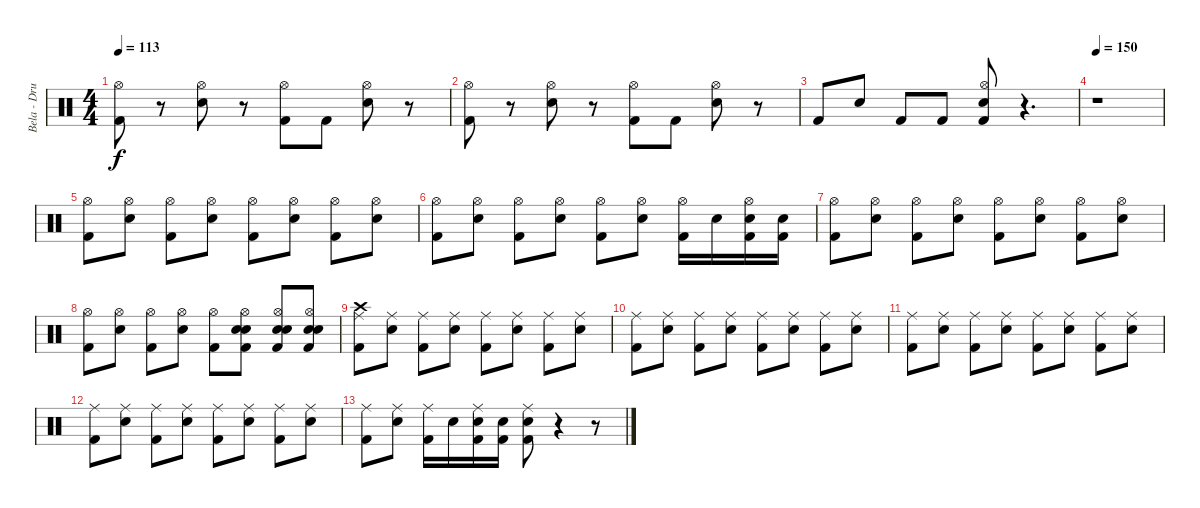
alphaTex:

\track ("Bela - Drums" "Bela - Dru") {instrument percussion}
\staff {score}
\articulation defaults
\ts (4 4)
\tempo 113
\clef neutral
\ks c
("Kick (hit) 2" "Hi-Hat (open)").8{dy f} r.8 ("Electric Snare (hit)" "Hi-Hat (open)").8 r.8 ("Kick (hit) 2" "Hi-Hat (open)").8 "Kick (hit) 2".8 ("Electric Snare (hit)" "Hi-Hat (open)").8 r.8 |
("Kick (hit) 2" "Hi-Hat (open)").8 r.8 ("Electric Snare (hit)" "Hi-Hat (open)").8 r.8 ("Kick (hit) 2" "Hi-Hat (open)").8 "Kick (hit) 2".8 ("Electric Snare (hit)" "Hi-Hat (open)").8 r.8 |
"Kick (hit) 2".8 "Electric Snare (hit)".8 "Kick (hit) 2".8 "Kick (hit) 2".8 ("Hi-Hat (open)" "Electric Snare (hit)" "Kick (hit) 2").8 r.4{d} |
\tempo 150
r.1 |
("Hi-Hat (open)" "Kick (hit) 2").8 ("Hi-Hat (open)" "Electric Snare (hit)").8 ("Hi-Hat (open)" "Kick (hit) 2").8 ("Hi-Hat (open)" "Electric Snare (hit)").8 ("Hi-Hat (open)" "Kick (hit) 2").8 ("Hi-Hat (open)" "Electric Snare (hit)").8 ("Hi-Hat (open)" "Kick (hit) 2").8 ("Hi-Hat (open)" "Electric Snare (hit)").8 |
("Hi-Hat (open)" "Kick (hit) 2").8 ("Hi-Hat (open)" "Electric Snare (hit)").8 ("Hi-Hat (open)" "Kick (hit) 2").8 ("Hi-Hat (open)" "Electric Snare (hit)").8 ("Hi-Hat (open)" "Kick (hit) 2").8 ("Hi-Hat (open)" "Electric Snare (hit)").8 ("Hi-Hat (open)" "Kick (hit) 2").16 "Electric Snare (hit)".16 ("Kick (hit) 2" "Hi-Hat (open)" "Electric Snare (hit)").16 ("Kick (hit) 2" "Electric Snare (hit)").16 |
("Hi-Hat (open)" "Kick (hit) 2").8 ("Hi-Hat (open)" "Electric Snare (hit)").8 ("Hi-Hat (open)" "Kick (hit) 2").8 ("Hi-Hat (open)" "Electric Snare (hit)").8 ("Kick (hit) 2" "Hi-Hat (open)").8 ("Hi-Hat (open)" "Electric Snare (hit)").8 ("Hi-Hat (open)" "Kick (hit) 2").8 ("Electric Snare (hit)" "Hi-Hat (open)").8 |
("Kick (hit) 2" "Hi-Hat (open)").8 ("Electric Snare (hit)" "Hi-Hat (open)").8 ("Hi-Hat (open)" "Kick (hit) 2").8 ("Electric Snare (hit)" "Hi-Hat (open)").8 ("Hi-Hat (open)" "Kick (hit) 2").8 ("Snare (hit) 2" "Kick (hit) 2" "Hi-Hat (open)" "Electric Snare (hit)").8 ("Electric Snare (hit)" "Snare (hit) 2" "Kick (hit) 2" "Hi-Hat (open)").8 ("Kick (hit) 2" "Hi-Hat (open)" "Electric Snare (hit)" "Snare (hit) 2").8 |
("Ride (middle)" "Kick (hit) 2" "Crash high (hit)").8 ("Ride (middle)" "Electric Snare (hit)").8 ("Ride (middle)" "Kick (hit) 2").8 ("Ride (middle)" "Electric Snare (hit)").8 ("Ride (middle)" "Kick (hit) 2").8 ("Ride (middle)" "Electric Snare (hit)").8 ("Kick (hit) 2" "Ride (middle)").8 ("Ride (middle)" "Electric Snare (hit)").8 |
("Ride (middle)" "Kick (hit) 2").8 ("Ride (middle)" "Electric Snare (hit)").8 ("Ride (middle)" "Kick (hit) 2").8 ("Ride (middle)" "Electric Snare (hit)").8 ("Ride (middle)" "Kick (hit) 2").8 ("Ride (middle)" "Electric Snare (hit)").8 ("Kick (hit) 2" "Ride (middle)").8 ("Ride (middle)" "Electric Snare (hit)").8 |
("Ride (middle)" "Kick (hit) 2").8 ("Ride (middle)" "Electric Snare (hit)").8 ("Ride (middle)" "Kick (hit) 2").8 ("Ride (middle)" "Electric Snare (hit)").8 ("Ride (middle)" "Kick (hit) 2").8 ("Ride (middle)" "Electric Snare (hit)").8 ("Kick (hit) 2" "Ride (middle)").8 ("Ride (middle)" "Electric Snare (hit)").8 |
("Ride (middle)" "Kick (hit) 2").8 ("Ride (middle)" "Electric Snare (hit)").8 ("Ride (middle)" "Kick (hit) 2").8 ("Ride (middle)" "Electric Snare (hit)").8 ("Ride (middle)" "Kick (hit) 2").8 ("Ride (middle)" "Electric Snare (hit)").8 ("Ride (middle)" "Kick (hit) 2").8 ("Ride (middle)" "Electric Snare (hit)").8 |
("Ride (middle)" "Kick (hit) 2").8 ("Ride (middle)" "Electric Snare (hit)").8 ("Ride (middle)" "Kick (hit) 2").16 "Electric Snare (hit)".16 ("Electric Snare (hit)" "Kick (hit) 2" "Ride (middle)").16 ("Electric Snare (hit)" "Kick (hit) 2").16 ("Kick (hit) 2" "Ride (middle)" "Electric Snare (hit)").8 r.4 r.8
